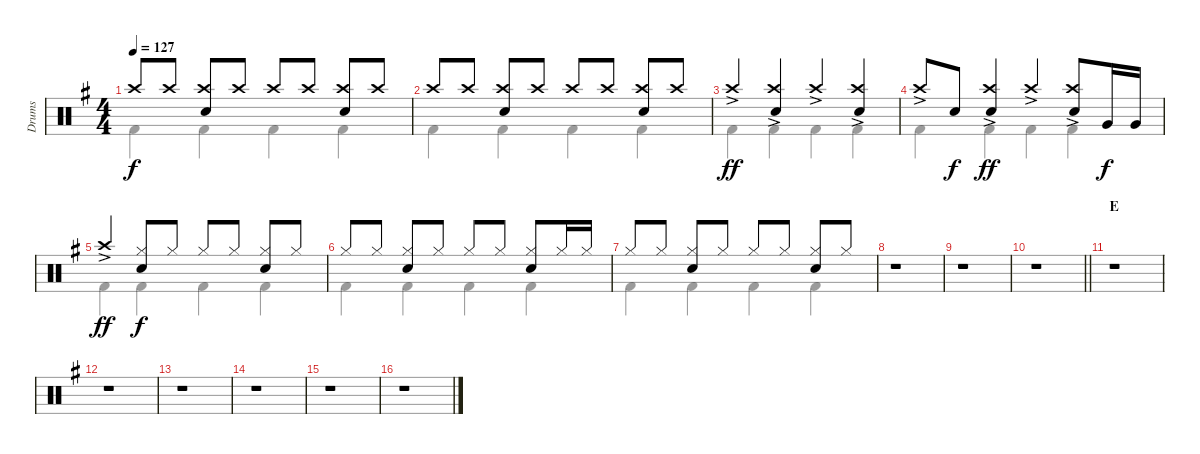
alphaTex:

\track ("Drums" "Drums") {instrument percussion}
\staff {score}
\articulation defaults
\voice
\ts (4 4)
\tempo 127
\clef neutral
\ks g "Crash high (hit)".8{dy f} "Crash high (hit)".8
("Crash high (hit)" "Snare (hit) 2").8 "Crash high (hit)".8 "Crash high (hit)".8 "Crash high (hit)".8 ("Crash high (hit)" "Snare (hit) 2").8 "Crash high (hit)".8 |
"Crash high (hit)".8 "Crash high (hit)".8 ("Crash high (hit)" "Snare (hit) 2").8 "Crash high (hit)".8 "Crash high (hit)".8 "Crash high (hit)".8 ("Crash high (hit)" "Snare (hit) 2").8 "Crash high (hit)".8 |
"Crash high (hit)"{ac}.4{dy ff} ("Crash high (hit)"{ac} "Snare (hit) 2").4 "Crash high (hit)"{ac}.4 ("Crash high (hit)"{ac} "Snare (hit) 2").4 |
"Crash high (hit)"{ac}.8 "Snare (hit) 2".8{dy f} ("Crash high (hit)"{ac} "Snare (hit) 2").4{dy ff} "Crash high (hit)"{ac}.4 ("Crash high (hit)"{ac} "Snare (hit) 2").8 "Very Low Tom (hit)".16{dy f} "Very Low Tom (hit)".16 |
"Crash high (hit)"{ac}.4{dy ff} ("Hi-Hat (closed)" "Snare (hit) 2").8{dy f} "Hi-Hat (closed)".8 "Hi-Hat (closed)".8 "Hi-Hat (closed)".8 ("Hi-Hat (closed)" "Snare (hit) 2").8 "Hi-Hat (closed)".8 |
"Hi-Hat (closed)".8 "Hi-Hat (closed)".8 ("Hi-Hat (closed)" "Snare (hit) 2").8 "Hi-Hat (closed)".8 "Hi-Hat (closed)".8 "Hi-Hat (closed)".8 ("Hi-Hat (closed)" "Snare (hit) 2").8 "Hi-Hat (closed)".16 "Hi-Hat (closed)".16 |
"Hi-Hat (closed)".8 "Hi-Hat (closed)".8 ("Hi-Hat (closed)" "Snare (hit) 2").8 "Hi-Hat (closed)".8 "Hi-Hat (closed)".8 "Hi-Hat (closed)".8 ("Hi-Hat (closed)" "Snare (hit) 2").8 "Hi-Hat (closed)".8 |
r.1 |
r.1 |
\barLineRight lightlight
r.1 |
\section ("" "E")
r.1 |
r.1 |
r.1 |
r.1 |
r.1 |
r.1
\voice
\clef neutral
\ottava regular
\simile none
\ks g "Kick (hit) 2".4{dy f} "Kick (hit) 2".4 "Kick (hit) 2".4 "Kick (hit) 2".4
|
"Kick (hit) 2".4 "Kick (hit) 2".4 "Kick (hit) 2".4 "Kick (hit) 2".4 |
"Kick (hit) 2".4 "Kick (hit) 2".4 "Kick (hit) 2".4 "Kick (hit) 2".4 |
"Kick (hit) 2".4 "Kick (hit) 2".4 "Kick (hit) 2".4 "Kick (hit) 2".4 |
"Kick (hit) 2".4 "Kick (hit) 2".4 "Kick (hit) 2".4 "Kick (hit) 2".4 |
"Kick (hit) 2".4 "Kick (hit) 2".4 "Kick (hit) 2".4 "Kick (hit) 2".4 |
"Kick (hit) 2".4 "Kick (hit) 2".4 "Kick (hit) 2".4 "Kick (hit) 2".4 |
|
|
\barLineRight lightlight
|
|
|
|
|
|
